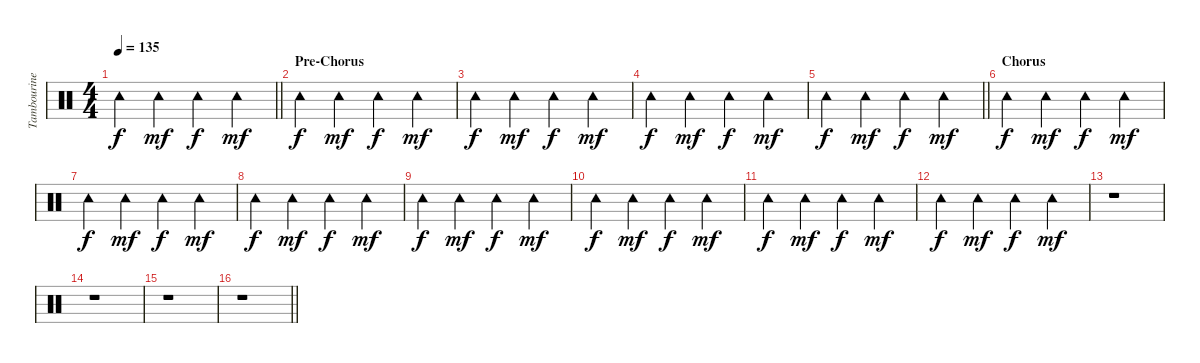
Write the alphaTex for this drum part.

\track ("Tambourine" "Tambourine") {instrument percussion}
\staff {score}
\articulation defaults
\ts (4 4)
\tempo 135
\clef neutral
\barLineRight lightlight
\ks c "Tambourine (hit)".4{dy f} "Tambourine (hit)".4{dy mf} "Tambourine (hit)".4{dy f} "Tambourine (hit)".4{dy mf}
|
\section ("" "Pre-Chorus")
"Tambourine (hit)".4{dy f} "Tambourine (hit)".4{dy mf} "Tambourine (hit)".4{dy f} "Tambourine (hit)".4{dy mf} |
"Tambourine (hit)".4{dy f} "Tambourine (hit)".4{dy mf} "Tambourine (hit)".4{dy f} "Tambourine (hit)".4{dy mf} |
"Tambourine (hit)".4{dy f} "Tambourine (hit)".4{dy mf} "Tambourine (hit)".4{dy f} "Tambourine (hit)".4{dy mf} |
\barLineRight lightlight "Tambourine (hit)".4{dy f} "Tambourine (hit)".4{dy mf} "Tambourine (hit)".4{dy f} "Tambourine (hit)".4{dy mf}
|
\section ("" "Chorus")
"Tambourine (hit)".4{dy f} "Tambourine (hit)".4{dy mf} "Tambourine (hit)".4{dy f} "Tambourine (hit)".4{dy mf} |
"Tambourine (hit)".4{dy f} "Tambourine (hit)".4{dy mf} "Tambourine (hit)".4{dy f} "Tambourine (hit)".4{dy mf} |
"Tambourine (hit)".4{dy f} "Tambourine (hit)".4{dy mf} "Tambourine (hit)".4{dy f} "Tambourine (hit)".4{dy mf} |
"Tambourine (hit)".4{dy f} "Tambourine (hit)".4{dy mf} "Tambourine (hit)".4{dy f} "Tambourine (hit)".4{dy mf} |
"Tambourine (hit)".4{dy f} "Tambourine (hit)".4{dy mf} "Tambourine (hit)".4{dy f} "Tambourine (hit)".4{dy mf} |
"Tambourine (hit)".4{dy f} "Tambourine (hit)".4{dy mf} "Tambourine (hit)".4{dy f} "Tambourine (hit)".4{dy mf} |
"Tambourine (hit)".4{dy f} "Tambourine (hit)".4{dy mf} "Tambourine (hit)".4{dy f} "Tambourine (hit)".4{dy mf} |
r.1 |
r.1 |
r.1 |
\barLineRight lightlight
r.1
